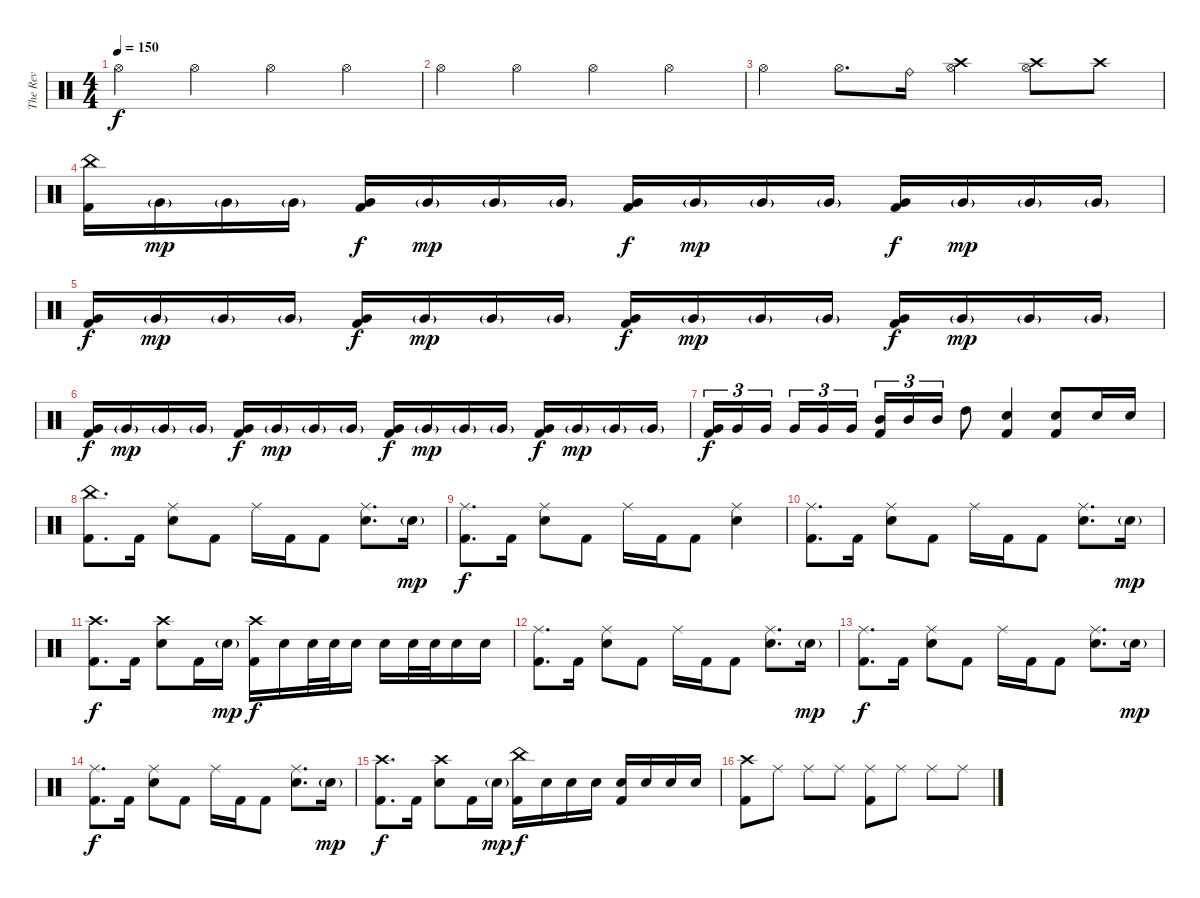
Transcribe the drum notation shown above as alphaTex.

\track ("The Rev" "The Rev") {instrument percussion}
\staff {score}
\articulation defaults
\ts (4 4)
\tempo 150
\clef neutral
\ks c "Hi-Hat (open)".4{dy f} "Hi-Hat (open)".4 "Hi-Hat (open)".4 "Hi-Hat (open)".4
|
"Hi-Hat (open)".4 "Hi-Hat (open)".4 "Hi-Hat (open)".4 "Hi-Hat (open)".4 |
"Hi-Hat (open)".4 "Hi-Hat (open)".8{d} "Ride (bell)".16 ("Crash high (hit)" "Hi-Hat (open)").4 ("Crash high (hit)" "Hi-Hat (open)").8 "Crash high (hit)".8 |
("China (hit)" "Kick (hit) 2").16 "Very Low Tom (hit)"{g}.16{dy mp} "Very Low Tom (hit)"{g}.16 "Very Low Tom (hit)"{g}.16 ("Very Low Tom (hit)" "Kick (hit) 2").16{dy f} "Very Low Tom (hit)"{g}.16{dy mp} "Very Low Tom (hit)"{g}.16 "Very Low Tom (hit)"{g}.16 ("Very Low Tom (hit)" "Kick (hit) 2").16{dy f} "Very Low Tom (hit)"{g}.16{dy mp} "Very Low Tom (hit)"{g}.16 "Very Low Tom (hit)"{g}.16 ("Very Low Tom (hit)" "Kick (hit) 2").16{dy f} "Very Low Tom (hit)"{g}.16{dy mp} "Very Low Tom (hit)"{g}.16 "Very Low Tom (hit)"{g}.16 |
("Very Low Tom (hit)" "Kick (hit) 2").16{dy f} "Very Low Tom (hit)"{g}.16{dy mp} "Very Low Tom (hit)"{g}.16 "Very Low Tom (hit)"{g}.16 ("Very Low Tom (hit)" "Kick (hit) 2").16{dy f} "Very Low Tom (hit)"{g}.16{dy mp} "Very Low Tom (hit)"{g}.16 "Very Low Tom (hit)"{g}.16 ("Very Low Tom (hit)" "Kick (hit) 2").16{dy f} "Very Low Tom (hit)"{g}.16{dy mp} "Very Low Tom (hit)"{g}.16 "Very Low Tom (hit)"{g}.16 ("Very Low Tom (hit)" "Kick (hit) 2").16{dy f} "Very Low Tom (hit)"{g}.16{dy mp} "Very Low Tom (hit)"{g}.16 "Very Low Tom (hit)"{g}.16 |
("Very Low Tom (hit)" "Kick (hit) 2").16{dy f} "Very Low Tom (hit)"{g}.16{dy mp} "Very Low Tom (hit)"{g}.16 "Very Low Tom (hit)"{g}.16 ("Very Low Tom (hit)" "Kick (hit) 2").16{dy f} "Very Low Tom (hit)"{g}.16{dy mp} "Very Low Tom (hit)"{g}.16 "Very Low Tom (hit)"{g}.16 ("Very Low Tom (hit)" "Kick (hit) 2").16{dy f} "Very Low Tom (hit)"{g}.16{dy mp} "Very Low Tom (hit)"{g}.16 "Very Low Tom (hit)"{g}.16 ("Very Low Tom (hit)" "Kick (hit) 2").16{dy f} "Very Low Tom (hit)"{g}.16{dy mp} "Very Low Tom (hit)"{g}.16 "Very Low Tom (hit)"{g}.16 |
("Very Low Tom (hit)" "Kick (hit) 2").16{tu (3 2) dy f} "Very Low Tom (hit)".16{tu (3 2)} "Very Low Tom (hit)".16{tu (3 2) beam splitsecondary} "Very Low Tom (hit)".16{tu (3 2)} "Very Low Tom (hit)".16{tu (3 2)} "Very Low Tom (hit)".16{tu (3 2)} ("Mid Tom (hit)" "Kick (hit) 2").16{tu (3 2)} "Mid Tom (hit)".16{tu (3 2)} "Mid Tom (hit)".16{tu (3 2)} "High Tom (hit)".8 ("Electric Snare (hit)" "Kick (hit) 2").4 ("Electric Snare (hit)" "Kick (hit) 2").8 "Electric Snare (hit)".16 "Electric Snare (hit)".16 |
("China (hit)" "Kick (hit) 2").8{d} "Kick (hit) 2".16 ("Ride (middle)" "Electric Snare (hit)").8 "Kick (hit) 2".8 "Ride (middle)".16 "Kick (hit) 2".16 "Kick (hit) 2".8 ("Ride (middle)" "Electric Snare (hit)").8{d} "Electric Snare (hit)"{g}.16{dy mp} |
("Ride (middle)" "Kick (hit) 2").8{d dy f} "Kick (hit) 2".16 ("Ride (middle)" "Electric Snare (hit)").8 "Kick (hit) 2".8 "Ride (middle)".16 "Kick (hit) 2".16 "Kick (hit) 2".8 ("Ride (middle)" "Electric Snare (hit)").4 |
("Ride (middle)" "Kick (hit) 2").8{d} "Kick (hit) 2".16 ("Ride (middle)" "Electric Snare (hit)").8 "Kick (hit) 2".8 "Ride (middle)".16 "Kick (hit) 2".16 "Kick (hit) 2".8 ("Ride (middle)" "Electric Snare (hit)").8{d} "Electric Snare (hit)"{g}.16{dy mp} |
("Crash high (hit)" "Kick (hit) 2").8{d dy f} "Kick (hit) 2".16 ("Crash high (hit)" "Electric Snare (hit)").8 "Kick (hit) 2".16 "Electric Snare (hit)"{g}.16{dy mp} ("Crash high (hit)" "Kick (hit) 2").16{dy f} "Electric Snare (hit)".16 "Electric Snare (hit)".32 "Electric Snare (hit)".32 "Electric Snare (hit)".16 "Electric Snare (hit)".16 "Electric Snare (hit)".32 "Electric Snare (hit)".32 "Electric Snare (hit)".16 "Electric Snare (hit)".16 |
("Ride (middle)" "Kick (hit) 2").8{d} "Kick (hit) 2".16 ("Ride (middle)" "Electric Snare (hit)").8 "Kick (hit) 2".8 "Ride (middle)".16 "Kick (hit) 2".16 "Kick (hit) 2".8 ("Ride (middle)" "Electric Snare (hit)").8{d} "Electric Snare (hit)"{g}.16{dy mp} |
("Ride (middle)" "Kick (hit) 2").8{d dy f} "Kick (hit) 2".16 ("Ride (middle)" "Electric Snare (hit)").8 "Kick (hit) 2".8 "Ride (middle)".16 "Kick (hit) 2".16 "Kick (hit) 2".8 ("Ride (middle)" "Electric Snare (hit)").8{d} "Electric Snare (hit)"{g}.16{dy mp} |
("Ride (middle)" "Kick (hit) 2").8{d dy f} "Kick (hit) 2".16 ("Ride (middle)" "Electric Snare (hit)").8 "Kick (hit) 2".8 "Ride (middle)".16 "Kick (hit) 2".16 "Kick (hit) 2".8 ("Ride (middle)" "Electric Snare (hit)").8{d} "Electric Snare (hit)"{g}.16{dy mp} |
("Crash high (hit)" "Kick (hit) 2").8{d dy f} "Kick (hit) 2".16 ("Crash high (hit)" "Electric Snare (hit)").8 "Kick (hit) 2".16 "Electric Snare (hit)"{g}.16{dy mp} ("China (hit)" "Kick (hit) 2").16{dy f} "Electric Snare (hit)".16 "Electric Snare (hit)".16 "Electric Snare (hit)".16 ("Electric Snare (hit)" "Kick (hit) 2").16 "Electric Snare (hit)".16 "Electric Snare (hit)".16 "Electric Snare (hit)".16 |
("Crash high (hit)" "Kick (hit) 2").8 "Ride (middle)".8 "Ride (middle)".8 "Ride (middle)".8 ("Ride (middle)" "Kick (hit) 2").8 "Ride (middle)".8 "Ride (middle)".8 "Ride (middle)".8
